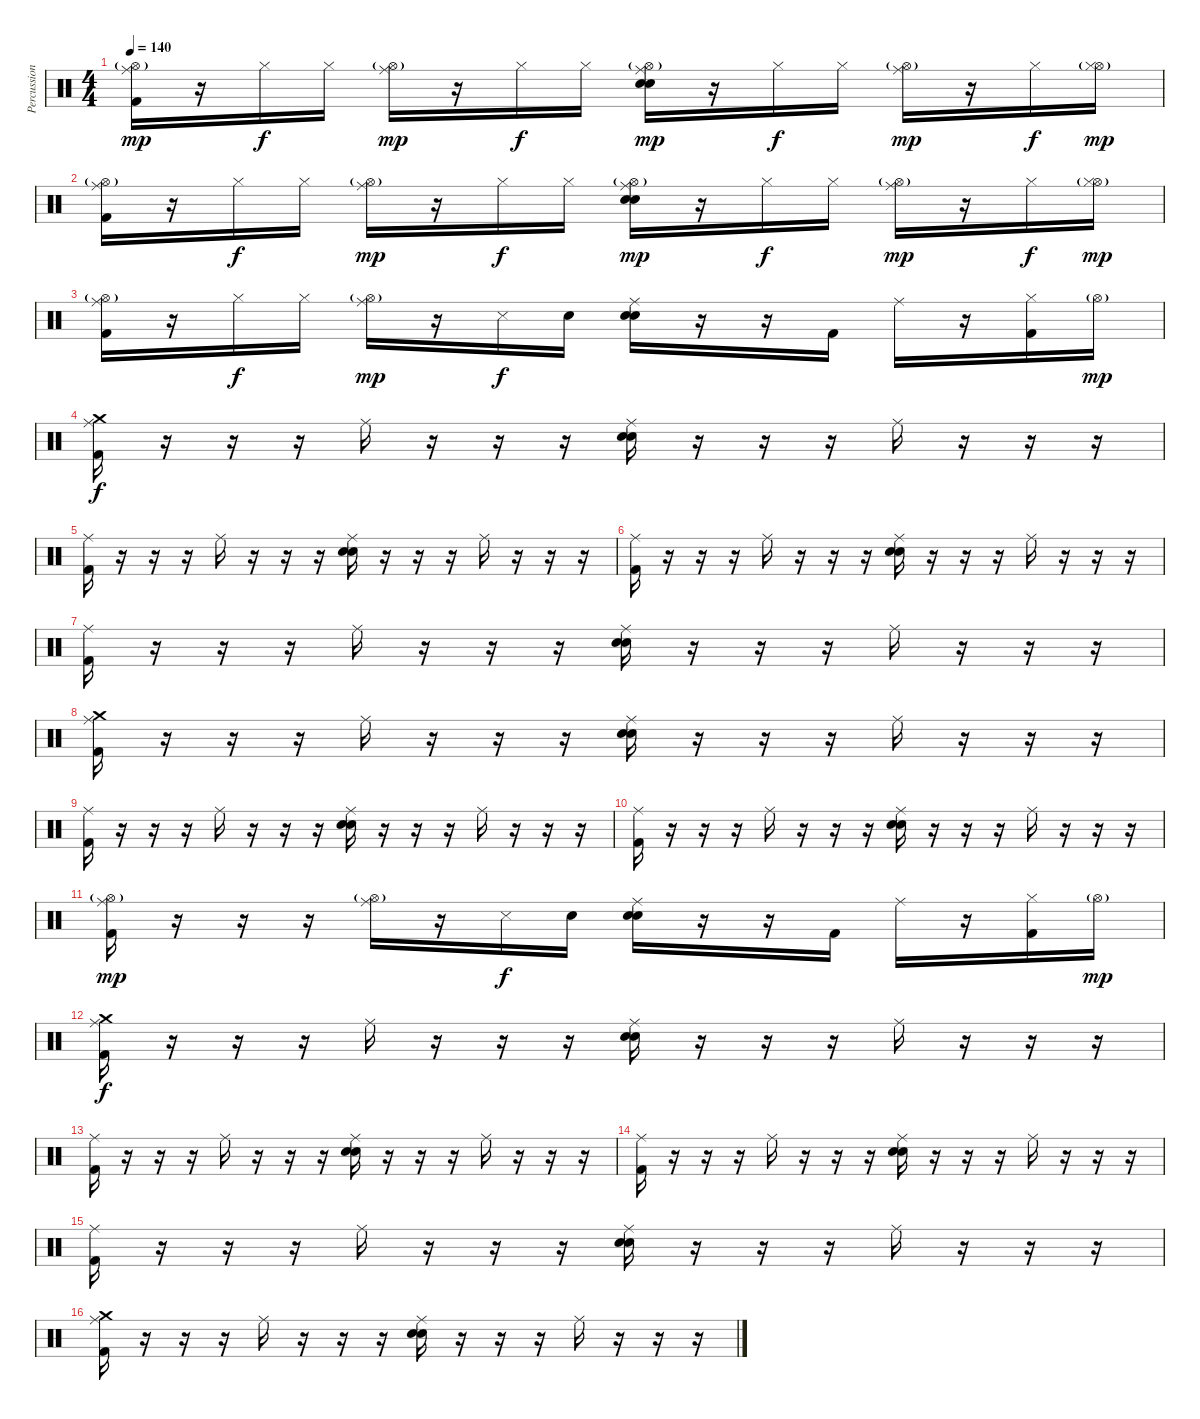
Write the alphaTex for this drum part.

\track ("Percussion" "Percussion") {instrument percussion}
\staff {score}
\articulation defaults
\ts (4 4)
\tempo 140
\clef neutral
\ks c
("Hi-Hat (open)"{g} "Ride (middle)" "Kick (hit) 2").16{dy mp} r.16 "Hi-Hat (closed)".16{dy f} "Hi-Hat (closed)".16 ("Hi-Hat (open)"{g} "Ride (middle)").16{dy mp} r.16 "Hi-Hat (closed)".16{dy f} "Hi-Hat (closed)".16 ("Hi-Hat (open)"{g} "Ride (middle)" "Hand Clap (hit)" "Snare (hit) 2").16{dy mp} r.16 "Hi-Hat (closed)".16{dy f} "Hi-Hat (closed)".16 ("Hi-Hat (open)"{g} "Ride (middle)").16{dy mp} r.16 "Hi-Hat (closed)".16{dy f} ("Hi-Hat (open)"{g} "Hi-Hat (closed)").16{dy mp} |
("Hi-Hat (open)"{g} "Ride (middle)" "Kick (hit) 2").16 r.16 "Hi-Hat (closed)".16{dy f} "Hi-Hat (closed)".16 ("Hi-Hat (open)"{g} "Ride (middle)").16{dy mp} r.16 "Hi-Hat (closed)".16{dy f} "Hi-Hat (closed)".16 ("Hi-Hat (open)"{g} "Ride (middle)" "Hand Clap (hit)" "Snare (hit) 2").16{dy mp} r.16 "Hi-Hat (closed)".16{dy f} "Hi-Hat (closed)".16 ("Hi-Hat (open)"{g} "Ride (middle)").16{dy mp} r.16 "Hi-Hat (closed)".16{dy f} ("Hi-Hat (open)"{g} "Hi-Hat (closed)").16{dy mp} |
("Hi-Hat (open)"{g} "Ride (middle)" "Kick (hit) 2").16 r.16 "Hi-Hat (closed)".16{dy f} "Hi-Hat (closed)".16 ("Hi-Hat (open)"{g} "Ride (middle)").16{dy mp} r.16 "Snare (side stick) 3".16{dy f} "Hand Clap (hit)".16 ("Ride (middle)" "Snare (hit) 2" "Hand Clap (hit)").16 r.16 r.16 "Kick (hit) 2".16 "Ride (middle)".16 r.16 ("Hi-Hat (closed)" "Kick (hit) 2").16 "Hi-Hat (open)"{g}.16{dy mp} |
("Crash medium (hit)" "Ride (middle)" "Kick (hit) 2").16{dy f} r.16 r.16 r.16 "Ride (middle)".16 r.16 r.16 r.16 ("Ride (middle)" "Hand Clap (hit)" "Snare (hit) 2").16 r.16 r.16 r.16 "Ride (middle)".16 r.16 r.16 r.16 |
("Ride (middle)" "Kick (hit) 2").16 r.16 r.16 r.16 "Ride (middle)".16 r.16 r.16 r.16 ("Ride (middle)" "Hand Clap (hit)" "Snare (hit) 2").16 r.16 r.16 r.16 "Ride (middle)".16 r.16 r.16 r.16 |
("Ride (middle)" "Kick (hit) 2").16 r.16 r.16 r.16 "Ride (middle)".16 r.16 r.16 r.16 ("Ride (middle)" "Hand Clap (hit)" "Snare (hit) 2").16 r.16 r.16 r.16 "Ride (middle)".16 r.16 r.16 r.16 |
("Ride (middle)" "Kick (hit) 2").16 r.16 r.16 r.16 "Ride (middle)".16 r.16 r.16 r.16 ("Ride (middle)" "Hand Clap (hit)" "Snare (hit) 2").16 r.16 r.16 r.16 "Ride (middle)".16 r.16 r.16 r.16 |
("Crash medium (hit)" "Ride (middle)" "Kick (hit) 2").16 r.16 r.16 r.16 "Ride (middle)".16 r.16 r.16 r.16 ("Ride (middle)" "Hand Clap (hit)" "Snare (hit) 2").16 r.16 r.16 r.16 "Ride (middle)".16 r.16 r.16 r.16 |
("Ride (middle)" "Kick (hit) 2").16 r.16 r.16 r.16 "Ride (middle)".16 r.16 r.16 r.16 ("Ride (middle)" "Hand Clap (hit)" "Snare (hit) 2").16 r.16 r.16 r.16 "Ride (middle)".16 r.16 r.16 r.16 |
("Ride (middle)" "Kick (hit) 2").16 r.16 r.16 r.16 "Ride (middle)".16 r.16 r.16 r.16 ("Ride (middle)" "Hand Clap (hit)" "Snare (hit) 2").16 r.16 r.16 r.16 "Ride (middle)".16 r.16 r.16 r.16 |
("Hi-Hat (open)"{g} "Ride (middle)" "Kick (hit) 2").16{dy mp} r.16 r.16 r.16 ("Hi-Hat (open)"{g} "Ride (middle)").16 r.16 "Snare (side stick) 3".16{dy f} "Hand Clap (hit)".16 ("Ride (middle)" "Snare (hit) 2" "Hand Clap (hit)").16 r.16 r.16 "Kick (hit) 2".16 "Ride (middle)".16 r.16 ("Hi-Hat (closed)" "Kick (hit) 2").16 "Hi-Hat (open)"{g}.16{dy mp} |
("Crash medium (hit)" "Ride (middle)" "Kick (hit) 2").16{dy f} r.16 r.16 r.16 "Ride (middle)".16 r.16 r.16 r.16 ("Ride (middle)" "Hand Clap (hit)" "Snare (hit) 2").16 r.16 r.16 r.16 "Ride (middle)".16 r.16 r.16 r.16 |
("Ride (middle)" "Kick (hit) 2").16 r.16 r.16 r.16 "Ride (middle)".16 r.16 r.16 r.16 ("Ride (middle)" "Hand Clap (hit)" "Snare (hit) 2").16 r.16 r.16 r.16 "Ride (middle)".16 r.16 r.16 r.16 |
("Ride (middle)" "Kick (hit) 2").16 r.16 r.16 r.16 "Ride (middle)".16 r.16 r.16 r.16 ("Ride (middle)" "Hand Clap (hit)" "Snare (hit) 2").16 r.16 r.16 r.16 "Ride (middle)".16 r.16 r.16 r.16 |
("Ride (middle)" "Kick (hit) 2").16 r.16 r.16 r.16 "Ride (middle)".16 r.16 r.16 r.16 ("Ride (middle)" "Hand Clap (hit)" "Snare (hit) 2").16 r.16 r.16 r.16 "Ride (middle)".16 r.16 r.16 r.16 |
("Crash medium (hit)" "Ride (middle)" "Kick (hit) 2").16 r.16 r.16 r.16 "Ride (middle)".16 r.16 r.16 r.16 ("Ride (middle)" "Hand Clap (hit)" "Snare (hit) 2").16 r.16 r.16 r.16 "Ride (middle)".16 r.16 r.16 r.16
